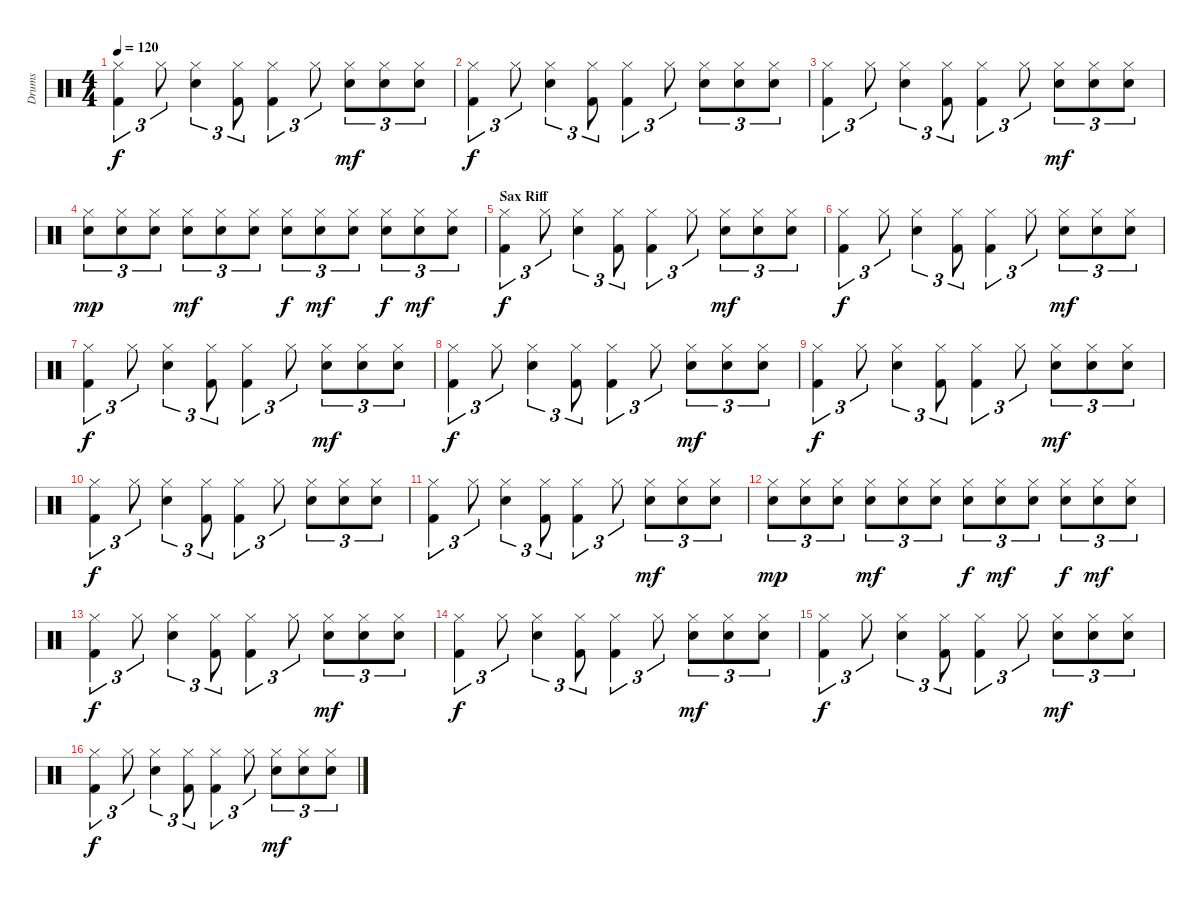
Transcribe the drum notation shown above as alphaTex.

\track ("Drums" "Drums") {instrument percussion}
\staff {score}
\articulation defaults
\ts (4 4)
\tempo 120
\clef neutral
\ks c
("Hi-Hat (closed)" "Kick (hit) 2").4{tu (3 2) dy f} "Hi-Hat (closed)".8{tu (3 2)} ("Hi-Hat (closed)" "Electric Snare (hit)").4{tu (3 2)} ("Hi-Hat (closed)" "Kick (hit) 2").8{tu (3 2)} ("Hi-Hat (closed)" "Kick (hit) 2").4{tu (3 2)} "Hi-Hat (closed)".8{tu (3 2)} ("Hi-Hat (closed)" "Electric Snare (hit)").8{tu (3 2) dy mf} ("Hi-Hat (closed)" "Electric Snare (hit)").8{tu (3 2)} ("Hi-Hat (closed)" "Electric Snare (hit)").8{tu (3 2)} |
("Hi-Hat (closed)" "Kick (hit) 2").4{tu (3 2) dy f} "Hi-Hat (closed)".8{tu (3 2)} ("Hi-Hat (closed)" "Electric Snare (hit)").4{tu (3 2)} ("Hi-Hat (closed)" "Kick (hit) 2").8{tu (3 2)} ("Hi-Hat (closed)" "Kick (hit) 2").4{tu (3 2)} "Hi-Hat (closed)".8{tu (3 2)} ("Hi-Hat (closed)" "Electric Snare (hit)").8{tu (3 2)} ("Hi-Hat (closed)" "Electric Snare (hit)").8{tu (3 2)} ("Hi-Hat (closed)" "Electric Snare (hit)").8{tu (3 2)} |
("Hi-Hat (closed)" "Kick (hit) 2").4{tu (3 2)} "Hi-Hat (closed)".8{tu (3 2)} ("Hi-Hat (closed)" "Electric Snare (hit)").4{tu (3 2)} ("Hi-Hat (closed)" "Kick (hit) 2").8{tu (3 2)} ("Hi-Hat (closed)" "Kick (hit) 2").4{tu (3 2)} "Hi-Hat (closed)".8{tu (3 2)} ("Hi-Hat (closed)" "Electric Snare (hit)").8{tu (3 2) dy mf} ("Hi-Hat (closed)" "Electric Snare (hit)").8{tu (3 2)} ("Hi-Hat (closed)" "Electric Snare (hit)").8{tu (3 2)} |
("Hi-Hat (closed)" "Electric Snare (hit)").8{tu (3 2) dy mp} ("Hi-Hat (closed)" "Electric Snare (hit)").8{tu (3 2)} ("Hi-Hat (closed)" "Electric Snare (hit)").8{tu (3 2)} ("Hi-Hat (closed)" "Electric Snare (hit)").8{tu (3 2) dy mf} ("Hi-Hat (closed)" "Electric Snare (hit)").8{tu (3 2)} ("Hi-Hat (closed)" "Electric Snare (hit)").8{tu (3 2)} ("Hi-Hat (closed)" "Electric Snare (hit)").8{tu (3 2) dy f} ("Hi-Hat (closed)" "Electric Snare (hit)").8{tu (3 2) dy mf} ("Hi-Hat (closed)" "Electric Snare (hit)").8{tu (3 2)} ("Hi-Hat (closed)" "Electric Snare (hit)").8{tu (3 2) dy f} ("Hi-Hat (closed)" "Electric Snare (hit)").8{tu (3 2) dy mf} ("Hi-Hat (closed)" "Electric Snare (hit)").8{tu (3 2)} |
\section ("" "Sax Riff")
("Hi-Hat (closed)" "Kick (hit) 2").4{tu (3 2) dy f} "Hi-Hat (closed)".8{tu (3 2)} ("Hi-Hat (closed)" "Electric Snare (hit)").4{tu (3 2)} ("Hi-Hat (closed)" "Kick (hit) 2").8{tu (3 2)} ("Hi-Hat (closed)" "Kick (hit) 2").4{tu (3 2)} "Hi-Hat (closed)".8{tu (3 2)} ("Hi-Hat (closed)" "Electric Snare (hit)").8{tu (3 2) dy mf} ("Hi-Hat (closed)" "Electric Snare (hit)").8{tu (3 2)} ("Hi-Hat (closed)" "Electric Snare (hit)").8{tu (3 2)} |
("Hi-Hat (closed)" "Kick (hit) 2").4{tu (3 2) dy f} "Hi-Hat (closed)".8{tu (3 2)} ("Hi-Hat (closed)" "Electric Snare (hit)").4{tu (3 2)} ("Hi-Hat (closed)" "Kick (hit) 2").8{tu (3 2)} ("Hi-Hat (closed)" "Kick (hit) 2").4{tu (3 2)} "Hi-Hat (closed)".8{tu (3 2)} ("Hi-Hat (closed)" "Electric Snare (hit)").8{tu (3 2) dy mf} ("Hi-Hat (closed)" "Electric Snare (hit)").8{tu (3 2)} ("Hi-Hat (closed)" "Electric Snare (hit)").8{tu (3 2)} |
("Hi-Hat (closed)" "Kick (hit) 2").4{tu (3 2) dy f} "Hi-Hat (closed)".8{tu (3 2)} ("Hi-Hat (closed)" "Electric Snare (hit)").4{tu (3 2)} ("Hi-Hat (closed)" "Kick (hit) 2").8{tu (3 2)} ("Hi-Hat (closed)" "Kick (hit) 2").4{tu (3 2)} "Hi-Hat (closed)".8{tu (3 2)} ("Hi-Hat (closed)" "Electric Snare (hit)").8{tu (3 2) dy mf} ("Hi-Hat (closed)" "Electric Snare (hit)").8{tu (3 2)} ("Hi-Hat (closed)" "Electric Snare (hit)").8{tu (3 2)} |
("Hi-Hat (closed)" "Kick (hit) 2").4{tu (3 2) dy f} "Hi-Hat (closed)".8{tu (3 2)} ("Hi-Hat (closed)" "Electric Snare (hit)").4{tu (3 2)} ("Hi-Hat (closed)" "Kick (hit) 2").8{tu (3 2)} ("Hi-Hat (closed)" "Kick (hit) 2").4{tu (3 2)} "Hi-Hat (closed)".8{tu (3 2)} ("Hi-Hat (closed)" "Electric Snare (hit)").8{tu (3 2) dy mf} ("Hi-Hat (closed)" "Electric Snare (hit)").8{tu (3 2)} ("Hi-Hat (closed)" "Electric Snare (hit)").8{tu (3 2)} |
("Hi-Hat (closed)" "Kick (hit) 2").4{tu (3 2) dy f} "Hi-Hat (closed)".8{tu (3 2)} ("Hi-Hat (closed)" "Electric Snare (hit)").4{tu (3 2)} ("Hi-Hat (closed)" "Kick (hit) 2").8{tu (3 2)} ("Hi-Hat (closed)" "Kick (hit) 2").4{tu (3 2)} "Hi-Hat (closed)".8{tu (3 2)} ("Hi-Hat (closed)" "Electric Snare (hit)").8{tu (3 2) dy mf} ("Hi-Hat (closed)" "Electric Snare (hit)").8{tu (3 2)} ("Hi-Hat (closed)" "Electric Snare (hit)").8{tu (3 2)} |
("Hi-Hat (closed)" "Kick (hit) 2").4{tu (3 2) dy f} "Hi-Hat (closed)".8{tu (3 2)} ("Hi-Hat (closed)" "Electric Snare (hit)").4{tu (3 2)} ("Hi-Hat (closed)" "Kick (hit) 2").8{tu (3 2)} ("Hi-Hat (closed)" "Kick (hit) 2").4{tu (3 2)} "Hi-Hat (closed)".8{tu (3 2)} ("Hi-Hat (closed)" "Electric Snare (hit)").8{tu (3 2)} ("Hi-Hat (closed)" "Electric Snare (hit)").8{tu (3 2)} ("Hi-Hat (closed)" "Electric Snare (hit)").8{tu (3 2)} |
("Hi-Hat (closed)" "Kick (hit) 2").4{tu (3 2)} "Hi-Hat (closed)".8{tu (3 2)} ("Hi-Hat (closed)" "Electric Snare (hit)").4{tu (3 2)} ("Hi-Hat (closed)" "Kick (hit) 2").8{tu (3 2)} ("Hi-Hat (closed)" "Kick (hit) 2").4{tu (3 2)} "Hi-Hat (closed)".8{tu (3 2)} ("Hi-Hat (closed)" "Electric Snare (hit)").8{tu (3 2) dy mf} ("Hi-Hat (closed)" "Electric Snare (hit)").8{tu (3 2)} ("Hi-Hat (closed)" "Electric Snare (hit)").8{tu (3 2)} |
("Hi-Hat (closed)" "Electric Snare (hit)").8{tu (3 2) dy mp} ("Hi-Hat (closed)" "Electric Snare (hit)").8{tu (3 2)} ("Hi-Hat (closed)" "Electric Snare (hit)").8{tu (3 2)} ("Hi-Hat (closed)" "Electric Snare (hit)").8{tu (3 2) dy mf} ("Hi-Hat (closed)" "Electric Snare (hit)").8{tu (3 2)} ("Hi-Hat (closed)" "Electric Snare (hit)").8{tu (3 2)} ("Hi-Hat (closed)" "Electric Snare (hit)").8{tu (3 2) dy f} ("Hi-Hat (closed)" "Electric Snare (hit)").8{tu (3 2) dy mf} ("Hi-Hat (closed)" "Electric Snare (hit)").8{tu (3 2)} ("Hi-Hat (closed)" "Electric Snare (hit)").8{tu (3 2) dy f} ("Hi-Hat (closed)" "Electric Snare (hit)").8{tu (3 2) dy mf} ("Hi-Hat (closed)" "Electric Snare (hit)").8{tu (3 2)} |
("Hi-Hat (closed)" "Kick (hit) 2").4{tu (3 2) dy f} "Hi-Hat (closed)".8{tu (3 2)} ("Hi-Hat (closed)" "Electric Snare (hit)").4{tu (3 2)} ("Hi-Hat (closed)" "Kick (hit) 2").8{tu (3 2)} ("Hi-Hat (closed)" "Kick (hit) 2").4{tu (3 2)} "Hi-Hat (closed)".8{tu (3 2)} ("Hi-Hat (closed)" "Electric Snare (hit)").8{tu (3 2) dy mf} ("Hi-Hat (closed)" "Electric Snare (hit)").8{tu (3 2)} ("Hi-Hat (closed)" "Electric Snare (hit)").8{tu (3 2)} |
("Hi-Hat (closed)" "Kick (hit) 2").4{tu (3 2) dy f} "Hi-Hat (closed)".8{tu (3 2)} ("Hi-Hat (closed)" "Electric Snare (hit)").4{tu (3 2)} ("Hi-Hat (closed)" "Kick (hit) 2").8{tu (3 2)} ("Hi-Hat (closed)" "Kick (hit) 2").4{tu (3 2)} "Hi-Hat (closed)".8{tu (3 2)} ("Hi-Hat (closed)" "Electric Snare (hit)").8{tu (3 2) dy mf} ("Hi-Hat (closed)" "Electric Snare (hit)").8{tu (3 2)} ("Hi-Hat (closed)" "Electric Snare (hit)").8{tu (3 2)} |
("Hi-Hat (closed)" "Kick (hit) 2").4{tu (3 2) dy f} "Hi-Hat (closed)".8{tu (3 2)} ("Hi-Hat (closed)" "Electric Snare (hit)").4{tu (3 2)} ("Hi-Hat (closed)" "Kick (hit) 2").8{tu (3 2)} ("Hi-Hat (closed)" "Kick (hit) 2").4{tu (3 2)} "Hi-Hat (closed)".8{tu (3 2)} ("Hi-Hat (closed)" "Electric Snare (hit)").8{tu (3 2) dy mf} ("Hi-Hat (closed)" "Electric Snare (hit)").8{tu (3 2)} ("Hi-Hat (closed)" "Electric Snare (hit)").8{tu (3 2)} |
("Hi-Hat (closed)" "Kick (hit) 2").4{tu (3 2) dy f} "Hi-Hat (closed)".8{tu (3 2)} ("Hi-Hat (closed)" "Electric Snare (hit)").4{tu (3 2)} ("Hi-Hat (closed)" "Kick (hit) 2").8{tu (3 2)} ("Hi-Hat (closed)" "Kick (hit) 2").4{tu (3 2)} "Hi-Hat (closed)".8{tu (3 2)} ("Hi-Hat (closed)" "Electric Snare (hit)").8{tu (3 2) dy mf} ("Hi-Hat (closed)" "Electric Snare (hit)").8{tu (3 2)} ("Hi-Hat (closed)" "Electric Snare (hit)").8{tu (3 2)}
